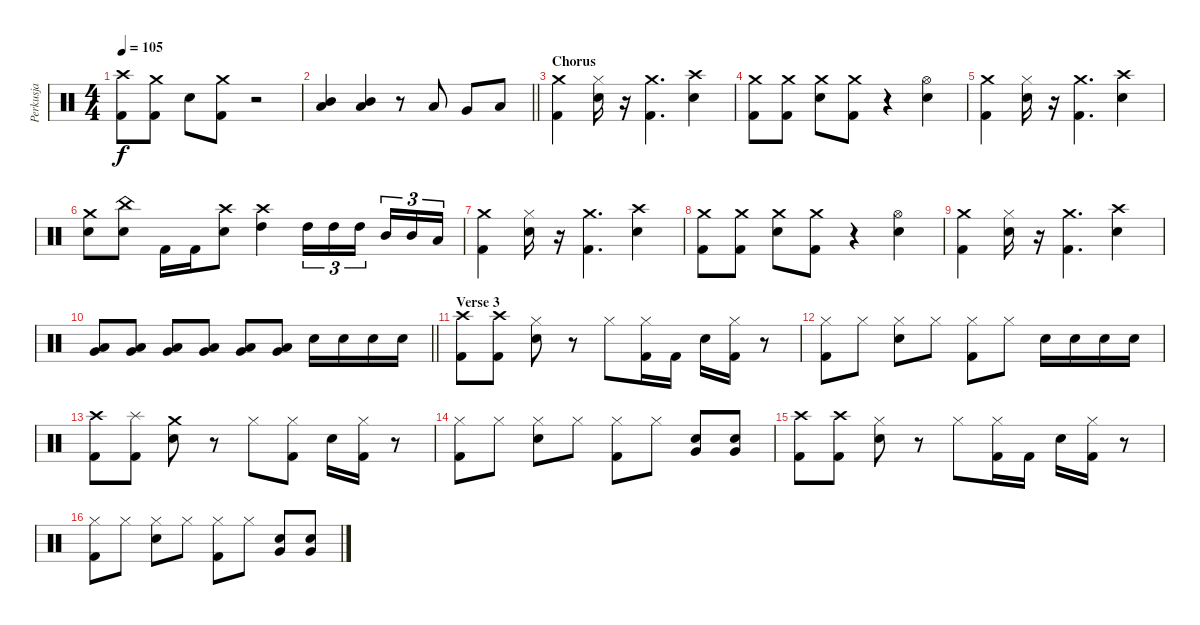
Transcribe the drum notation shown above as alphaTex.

\track ("Perkusja" "Perkusja") {instrument percussion}
\staff {score}
\articulation defaults
\ts (4 4)
\tempo 105
\clef neutral
\ks c
("Crash high (hit)" "Kick (hit) 2").8{dy f} ("Crash medium (hit)" "Kick (hit) 2").8 "Snare (hit) 2".8 ("Crash medium (hit)" "Kick (hit) 2").8 r.2 |
\barLineRight lightlight
("Low Tom (hit)" "Mid Tom (hit)").4 ("Low Tom (hit)" "Mid Tom (hit)").4 r.8 "Low Tom (hit)".8 "Very Low Tom (hit)".8 "Low Floor Tom (hit)".8 |
\section ("" "Chorus")
("Kick (hit) 2" "Crash medium (hit)").4 ("Snare (hit) 2" "Hi-Hat (closed)").16 r.16 ("Kick (hit) 2" "Crash medium (hit)").4{d} ("Snare (hit) 2" "Crash high (hit)").4 |
("Crash medium (hit)" "Kick (hit) 2").8 ("Crash medium (hit)" "Kick (hit) 2").8 ("Crash medium (hit)" "Snare (hit) 2").8 ("Crash medium (hit)" "Kick (hit) 2").8 r.4 ("Snare (hit) 2" "Hi-Hat (open)").4 |
("Kick (hit) 2" "Crash medium (hit)").4 ("Snare (hit) 2" "Hi-Hat (closed)").16 r.16 ("Kick (hit) 2" "Crash medium (hit)").4{d} ("Snare (hit) 2" "Crash high (hit)").4 |
("Crash medium (hit)" "Snare (hit) 2").8 ("China (hit)" "Snare (hit) 2").8 "Kick (hit) 2".16 "Kick (hit) 2".16 ("Crash high (hit)" "Snare (hit) 2").8 ("Crash high (hit)" "High Tom (hit)").4 "High Tom (hit)".16{tu (3 2)} "High Tom (hit)".16{tu (3 2)} "High Tom (hit)".16{tu (3 2) beam splitsecondary} "Mid Tom (hit)".16{tu (3 2)} "Mid Tom (hit)".16{tu (3 2)} "Low Tom (hit)".16{tu (3 2)} |
("Kick (hit) 2" "Crash medium (hit)").4 ("Snare (hit) 2" "Hi-Hat (closed)").16 r.16 ("Kick (hit) 2" "Crash medium (hit)").4{d} ("Snare (hit) 2" "Crash high (hit)").4 |
("Crash medium (hit)" "Kick (hit) 2").8 ("Crash medium (hit)" "Kick (hit) 2").8 ("Crash medium (hit)" "Snare (hit) 2").8 ("Crash medium (hit)" "Kick (hit) 2").8 r.4 ("Snare (hit) 2" "Hi-Hat (open)").4 |
("Kick (hit) 2" "Crash medium (hit)").4 ("Snare (hit) 2" "Hi-Hat (closed)").16 r.16 ("Kick (hit) 2" "Crash medium (hit)").4{d} ("Snare (hit) 2" "Crash high (hit)").4 |
\barLineRight lightlight
("Very Low Tom (hit)" "Low Floor Tom (hit)").8 ("Very Low Tom (hit)" "Low Floor Tom (hit)").8 ("Very Low Tom (hit)" "Low Floor Tom (hit)").8 ("Very Low Tom (hit)" "Low Floor Tom (hit)").8 ("Very Low Tom (hit)" "Low Floor Tom (hit)").8 ("Very Low Tom (hit)" "Low Floor Tom (hit)").8 "Snare (hit) 2".16 "Snare (hit) 2".16 "Snare (hit) 2".16 "Snare (hit) 2".16 |
\section ("" "Verse 3")
("Kick (hit) 2" "Crash high (hit)").8 ("Kick (hit) 2" "Crash high (hit)").8 ("Hi-Hat (closed)" "Snare (hit) 2").8 r.8 "Hi-Hat (closed)".8 ("Kick (hit) 2" "Hi-Hat (closed)").16 "Kick (hit) 2".16 "Snare (hit) 2".16 ("Hi-Hat (closed)" "Kick (hit) 2").16 r.8 |
("Hi-Hat (closed)" "Kick (hit) 2").8 "Hi-Hat (closed)".8 ("Hi-Hat (closed)" "Snare (hit) 2").8 "Hi-Hat (closed)".8 ("Hi-Hat (closed)" "Kick (hit) 2").8 "Hi-Hat (closed)".8 "Snare (hit) 2".16 "Snare (hit) 2".16 "Snare (hit) 2".16 "Snare (hit) 2".16 |
("Kick (hit) 2" "Crash high (hit)").8 ("Kick (hit) 2" "Splash (hit)").8 ("Crash medium (hit)" "Snare (hit) 2").8 r.8 "Hi-Hat (closed)".8 ("Kick (hit) 2" "Hi-Hat (closed)").8 "Snare (hit) 2".16 ("Hi-Hat (closed)" "Kick (hit) 2").16 r.8 |
("Hi-Hat (closed)" "Kick (hit) 2").8 "Hi-Hat (closed)".8 ("Hi-Hat (closed)" "Snare (hit) 2").8 "Hi-Hat (closed)".8 ("Hi-Hat (closed)" "Kick (hit) 2").8 "Hi-Hat (closed)".8 ("Very Low Tom (hit)" "Snare (hit) 2").8 ("Very Low Tom (hit)" "Snare (hit) 2").8 |
("Kick (hit) 2" "Crash high (hit)").8 ("Kick (hit) 2" "Crash high (hit)").8 ("Hi-Hat (closed)" "Snare (hit) 2").8 r.8 "Hi-Hat (closed)".8 ("Kick (hit) 2" "Hi-Hat (closed)").16 "Kick (hit) 2".16 "Snare (hit) 2".16 ("Hi-Hat (closed)" "Kick (hit) 2").16 r.8 |
("Hi-Hat (closed)" "Kick (hit) 2").8 "Hi-Hat (closed)".8 ("Hi-Hat (closed)" "Snare (hit) 2").8 "Hi-Hat (closed)".8 ("Hi-Hat (closed)" "Kick (hit) 2").8 "Hi-Hat (closed)".8 ("Snare (hit) 2" "Very Low Tom (hit)").8 ("Snare (hit) 2" "Very Low Tom (hit)").8
